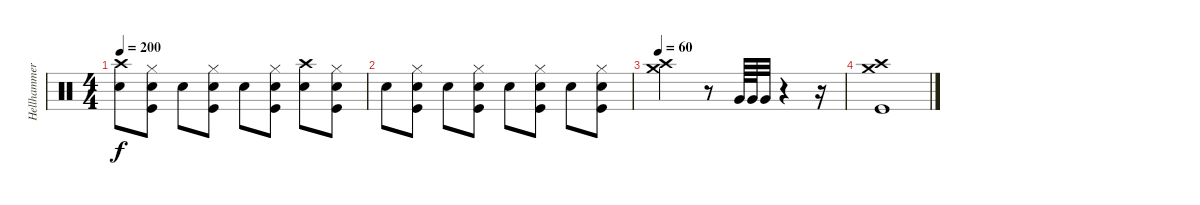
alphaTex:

\track ("Hellhammer" "Hellhammer") {instrument percussion}
\staff {score}
\articulation defaults
\ts (4 4)
\tempo 200
\clef neutral
\ks c
("Snare (hit) 2" "Crash high (hit)").8{dy f} ("Snare (hit) 2" "Kick (hit)" "Hi-Hat (closed)").8 "Snare (hit) 2".8 ("Snare (hit) 2" "Kick (hit)" "Hi-Hat (closed)").8 "Snare (hit) 2".8 ("Snare (hit) 2" "Kick (hit)" "Hi-Hat (closed)").8 ("Snare (hit) 2" "Crash high (hit)").8 ("Snare (hit) 2" "Kick (hit)" "Hi-Hat (closed)").8 |
"Snare (hit) 2".8 ("Snare (hit) 2" "Kick (hit)" "Hi-Hat (closed)").8 "Snare (hit) 2".8 ("Snare (hit) 2" "Kick (hit)" "Hi-Hat (closed)").8 "Snare (hit) 2".8 ("Snare (hit) 2" "Kick (hit)" "Hi-Hat (closed)").8 "Snare (hit) 2".8 ("Snare (hit) 2" "Kick (hit)" "Hi-Hat (closed)").8 |
\tempo 60
("Crash high (hit)" "Crash medium (hit)").2 r.8 "Very Low Tom (hit)".64 "Very Low Tom (hit)".64 "Very Low Tom (hit)".32 r.4 r.16 |
("Kick (hit)" "Crash high (hit)" "Crash medium (hit)").1
